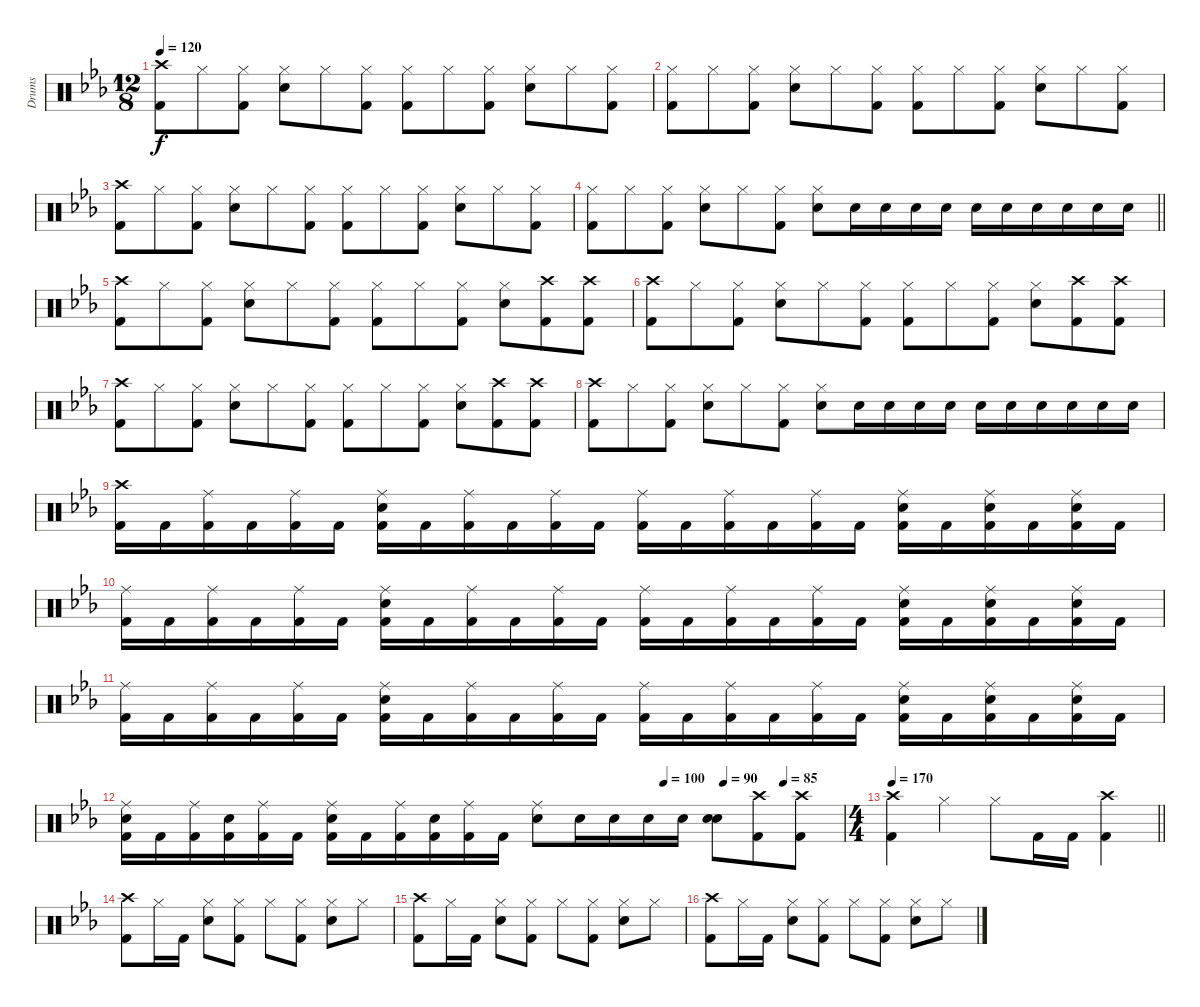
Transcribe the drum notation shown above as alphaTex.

\track ("Drums" "Drums") {instrument percussion}
\staff {score}
\articulation defaults
\ts (12 8)
\tempo 120
\clef neutral
\ks eb
("Crash high (hit)" "Kick (hit) 2").8{dy f} "Hi-Hat (closed)".8 ("Hi-Hat (closed)" "Kick (hit) 2").8 ("Hi-Hat (closed)" "Snare (hit) 2").8 "Hi-Hat (closed)".8 ("Hi-Hat (closed)" "Kick (hit) 2").8 ("Hi-Hat (closed)" "Kick (hit) 2").8 "Hi-Hat (closed)".8 ("Hi-Hat (closed)" "Kick (hit) 2").8 ("Hi-Hat (closed)" "Snare (hit) 2").8 "Hi-Hat (closed)".8 ("Hi-Hat (closed)" "Kick (hit) 2").8 |
("Hi-Hat (closed)" "Kick (hit) 2").8 "Hi-Hat (closed)".8 ("Hi-Hat (closed)" "Kick (hit) 2").8 ("Hi-Hat (closed)" "Snare (hit) 2").8 "Hi-Hat (closed)".8 ("Hi-Hat (closed)" "Kick (hit) 2").8 ("Hi-Hat (closed)" "Kick (hit) 2").8 "Hi-Hat (closed)".8 ("Hi-Hat (closed)" "Kick (hit) 2").8 ("Hi-Hat (closed)" "Snare (hit) 2").8 "Hi-Hat (closed)".8 ("Hi-Hat (closed)" "Kick (hit) 2").8 |
("Crash high (hit)" "Kick (hit) 2").8 "Hi-Hat (closed)".8 ("Hi-Hat (closed)" "Kick (hit) 2").8 ("Hi-Hat (closed)" "Snare (hit) 2").8 "Hi-Hat (closed)".8 ("Hi-Hat (closed)" "Kick (hit) 2").8 ("Hi-Hat (closed)" "Kick (hit) 2").8 "Hi-Hat (closed)".8 ("Hi-Hat (closed)" "Kick (hit) 2").8 ("Hi-Hat (closed)" "Snare (hit) 2").8 "Hi-Hat (closed)".8 ("Hi-Hat (closed)" "Kick (hit) 2").8 |
\barLineRight lightlight
("Hi-Hat (closed)" "Kick (hit) 2").8 "Hi-Hat (closed)".8 ("Hi-Hat (closed)" "Kick (hit) 2").8 ("Hi-Hat (closed)" "Snare (hit) 2").8 "Hi-Hat (closed)".8 ("Hi-Hat (closed)" "Kick (hit) 2").8 ("Hi-Hat (closed)" "Snare (hit) 2").8 "Snare (hit) 2".16 "Snare (hit) 2".16 "Snare (hit) 2".16 "Snare (hit) 2".16 "Snare (hit) 2".16 "Snare (hit) 2".16 "Snare (hit) 2".16 "Snare (hit) 2".16 "Snare (hit) 2".16 "Snare (hit) 2".16 |
("Crash high (hit)" "Kick (hit) 2").8 "Hi-Hat (closed)".8 ("Hi-Hat (closed)" "Kick (hit) 2").8 ("Hi-Hat (closed)" "Snare (hit) 2").8 "Hi-Hat (closed)".8 ("Hi-Hat (closed)" "Kick (hit) 2").8 ("Hi-Hat (closed)" "Kick (hit) 2").8 "Hi-Hat (closed)".8 ("Hi-Hat (closed)" "Kick (hit) 2").8 ("Hi-Hat (closed)" "Snare (hit) 2").8 ("Crash high (hit)" "Kick (hit) 2").8 ("Crash high (hit)" "Kick (hit) 2").8 |
("Crash high (hit)" "Kick (hit) 2").8 "Hi-Hat (closed)".8 ("Hi-Hat (closed)" "Kick (hit) 2").8 ("Hi-Hat (closed)" "Snare (hit) 2").8 "Hi-Hat (closed)".8 ("Hi-Hat (closed)" "Kick (hit) 2").8 ("Hi-Hat (closed)" "Kick (hit) 2").8 "Hi-Hat (closed)".8 ("Hi-Hat (closed)" "Kick (hit) 2").8 ("Hi-Hat (closed)" "Snare (hit) 2").8 ("Crash high (hit)" "Kick (hit) 2").8 ("Crash high (hit)" "Kick (hit) 2").8 |
("Crash high (hit)" "Kick (hit) 2").8 "Hi-Hat (closed)".8 ("Hi-Hat (closed)" "Kick (hit) 2").8 ("Hi-Hat (closed)" "Snare (hit) 2").8 "Hi-Hat (closed)".8 ("Hi-Hat (closed)" "Kick (hit) 2").8 ("Hi-Hat (closed)" "Kick (hit) 2").8 "Hi-Hat (closed)".8 ("Hi-Hat (closed)" "Kick (hit) 2").8 ("Hi-Hat (closed)" "Snare (hit) 2").8 ("Crash high (hit)" "Kick (hit) 2").8 ("Crash high (hit)" "Kick (hit) 2").8 |
("Crash high (hit)" "Kick (hit) 2").8 "Hi-Hat (closed)".8 ("Hi-Hat (closed)" "Kick (hit) 2").8 ("Hi-Hat (closed)" "Snare (hit) 2").8 "Hi-Hat (closed)".8 ("Hi-Hat (closed)" "Kick (hit) 2").8 ("Hi-Hat (closed)" "Snare (hit) 2").8 "Snare (hit) 2".16 "Snare (hit) 2".16 "Snare (hit) 2".16 "Snare (hit) 2".16 "Snare (hit) 2".16 "Snare (hit) 2".16 "Snare (hit) 2".16 "Snare (hit) 2".16 "Snare (hit) 2".16 "Snare (hit) 2".16 |
("Crash high (hit)" "Kick (hit) 2").16 "Kick (hit) 2".16 ("Ride (middle)" "Kick (hit) 2").16 "Kick (hit) 2".16 ("Ride (middle)" "Kick (hit) 2").16 "Kick (hit) 2".16 ("Ride (middle)" "Snare (hit) 2" "Kick (hit) 2").16 "Kick (hit) 2".16 ("Ride (middle)" "Kick (hit) 2").16 "Kick (hit) 2".16 ("Ride (middle)" "Kick (hit) 2").16 "Kick (hit) 2".16 ("Ride (middle)" "Kick (hit) 2").16 "Kick (hit) 2".16 ("Ride (middle)" "Kick (hit) 2").16 "Kick (hit) 2".16 ("Ride (middle)" "Kick (hit) 2").16 "Kick (hit) 2".16 ("Ride (middle)" "Snare (hit) 2" "Kick (hit) 2").16 "Kick (hit) 2".16 ("Ride (middle)" "Snare (hit) 2" "Kick (hit) 2").16 "Kick (hit) 2".16 ("Ride (middle)" "Snare (hit) 2" "Kick (hit) 2").16 "Kick (hit) 2".16 |
("Ride (middle)" "Kick (hit) 2").16 "Kick (hit) 2".16 ("Ride (middle)" "Kick (hit) 2").16 "Kick (hit) 2".16 ("Ride (middle)" "Kick (hit) 2").16 "Kick (hit) 2".16 ("Ride (middle)" "Snare (hit) 2" "Kick (hit) 2").16 "Kick (hit) 2".16 ("Ride (middle)" "Kick (hit) 2").16 "Kick (hit) 2".16 ("Ride (middle)" "Kick (hit) 2").16 "Kick (hit) 2".16 ("Ride (middle)" "Kick (hit) 2").16 "Kick (hit) 2".16 ("Ride (middle)" "Kick (hit) 2").16 "Kick (hit) 2".16 ("Ride (middle)" "Kick (hit) 2").16 "Kick (hit) 2".16 ("Ride (middle)" "Snare (hit) 2" "Kick (hit) 2").16 "Kick (hit) 2".16 ("Ride (middle)" "Snare (hit) 2" "Kick (hit) 2").16 "Kick (hit) 2".16 ("Ride (middle)" "Snare (hit) 2" "Kick (hit) 2").16 "Kick (hit) 2".16 |
("Ride (middle)" "Kick (hit) 2").16 "Kick (hit) 2".16 ("Ride (middle)" "Kick (hit) 2").16 "Kick (hit) 2".16 ("Ride (middle)" "Kick (hit) 2").16 "Kick (hit) 2".16 ("Ride (middle)" "Snare (hit) 2" "Kick (hit) 2").16 "Kick (hit) 2".16 ("Ride (middle)" "Kick (hit) 2").16 "Kick (hit) 2".16 ("Ride (middle)" "Kick (hit) 2").16 "Kick (hit) 2".16 ("Ride (middle)" "Kick (hit) 2").16 "Kick (hit) 2".16 ("Ride (middle)" "Kick (hit) 2").16 "Kick (hit) 2".16 ("Ride (middle)" "Kick (hit) 2").16 "Kick (hit) 2".16 ("Ride (middle)" "Snare (hit) 2" "Kick (hit) 2").16 "Kick (hit) 2".16 ("Ride (middle)" "Snare (hit) 2" "Kick (hit) 2").16 "Kick (hit) 2".16 ("Ride (middle)" "Snare (hit) 2" "Kick (hit) 2").16 "Kick (hit) 2".16 |
\tempo (100 0.75)
\tempo (90 0.8333333333333334)
\tempo (85 0.9166666666666666)
("Ride (middle)" "Snare (hit) 2" "Kick (hit) 2").16 "Kick (hit) 2".16 ("Ride (middle)" "Kick (hit) 2").16 ("Snare (hit) 2" "Kick (hit) 2").16 ("Ride (middle)" "Kick (hit) 2").16 "Kick (hit) 2".16 ("Ride (middle)" "Snare (hit) 2" "Kick (hit) 2").16 "Kick (hit) 2".16 ("Ride (middle)" "Kick (hit) 2").16 ("Snare (hit) 2" "Kick (hit) 2").16 ("Ride (middle)" "Kick (hit) 2").16 "Kick (hit) 2".16 ("Ride (middle)" "Snare (hit) 2").8 "Snare (hit) 2".16 "Snare (hit) 2".16 "Snare (hit) 2".16 "Snare (hit) 2".16 ("Snare (hit) 2" "Snare (hit) 2").8 ("Crash high (hit)" "Kick (hit) 2").8 ("Crash high (hit)" "Kick (hit) 2").8 |
\ts (4 4)
\tempo 170
\barLineRight lightlight
("Crash high (hit)" "Kick (hit) 2").4 "Hi-Hat (closed)".4 "Hi-Hat (closed)".8 "Kick (hit) 2".16 "Kick (hit) 2".16 ("Crash high (hit)" "Kick (hit) 2").4 |
("Crash high (hit)" "Kick (hit) 2").8 "Hi-Hat (closed)".16 "Kick (hit) 2".16 ("Hi-Hat (closed)" "Snare (hit) 2").8 ("Hi-Hat (closed)" "Kick (hit) 2").8 "Hi-Hat (closed)".8 ("Hi-Hat (closed)" "Kick (hit) 2").8 ("Hi-Hat (closed)" "Snare (hit) 2").8 "Hi-Hat (closed)".8 |
("Crash high (hit)" "Kick (hit) 2").8 "Hi-Hat (closed)".16 "Kick (hit) 2".16 ("Hi-Hat (closed)" "Snare (hit) 2").8 ("Hi-Hat (closed)" "Kick (hit) 2").8 "Hi-Hat (closed)".8 ("Hi-Hat (closed)" "Kick (hit) 2").8 ("Hi-Hat (closed)" "Snare (hit) 2").8 "Hi-Hat (closed)".8 |
("Crash high (hit)" "Kick (hit) 2").8 "Hi-Hat (closed)".16 "Kick (hit) 2".16 ("Hi-Hat (closed)" "Snare (hit) 2").8 ("Hi-Hat (closed)" "Kick (hit) 2").8 "Hi-Hat (closed)".8 ("Hi-Hat (closed)" "Kick (hit) 2").8 ("Hi-Hat (closed)" "Snare (hit) 2").8 "Hi-Hat (closed)".8
